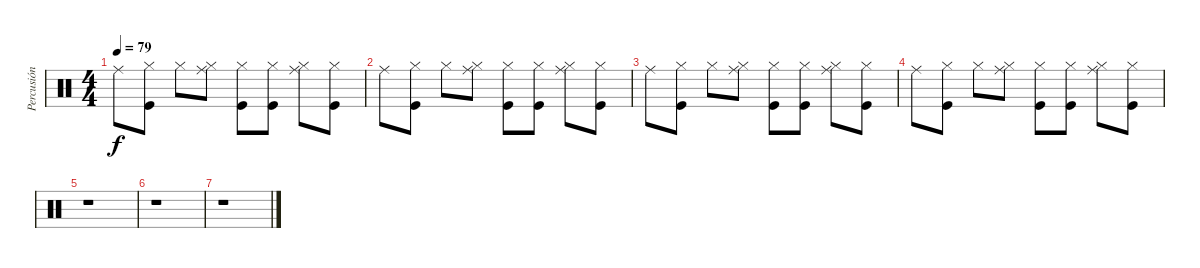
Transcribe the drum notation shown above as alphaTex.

\track ("Percusión" "Percusión") {instrument percussion}
\staff {score}
\articulation defaults
\ts (4 4)
\tempo 79
\clef neutral
\ks c "Ride (middle)".8{dy f}
("Kick (hit)" "Hi-Hat (closed)").8 "Hi-Hat (closed)".8 ("Ride (middle)" "Hi-Hat (closed)").8 ("Kick (hit)" "Hi-Hat (closed)").8 ("Kick (hit)" "Hi-Hat (closed)").8 ("Ride (middle)" "Hi-Hat (closed)").8 ("Kick (hit)" "Hi-Hat (closed)").8 |
"Ride (middle)".8 ("Kick (hit)" "Hi-Hat (closed)").8 "Hi-Hat (closed)".8 ("Ride (middle)" "Hi-Hat (closed)").8 ("Kick (hit)" "Hi-Hat (closed)").8 ("Kick (hit)" "Hi-Hat (closed)").8 ("Ride (middle)" "Hi-Hat (closed)").8 ("Kick (hit)" "Hi-Hat (closed)").8 |
"Ride (middle)".8 ("Kick (hit)" "Hi-Hat (closed)").8 "Hi-Hat (closed)".8 ("Ride (middle)" "Hi-Hat (closed)").8 ("Kick (hit)" "Hi-Hat (closed)").8 ("Kick (hit)" "Hi-Hat (closed)").8 ("Ride (middle)" "Hi-Hat (closed)").8 ("Kick (hit)" "Hi-Hat (closed)").8 |
"Ride (middle)".8 ("Kick (hit)" "Hi-Hat (closed)").8 "Hi-Hat (closed)".8 ("Ride (middle)" "Hi-Hat (closed)").8 ("Kick (hit)" "Hi-Hat (closed)").8 ("Kick (hit)" "Hi-Hat (closed)").8 ("Ride (middle)" "Hi-Hat (closed)").8 ("Kick (hit)" "Hi-Hat (closed)").8 |
r.1 |
r.1 |
r.1
